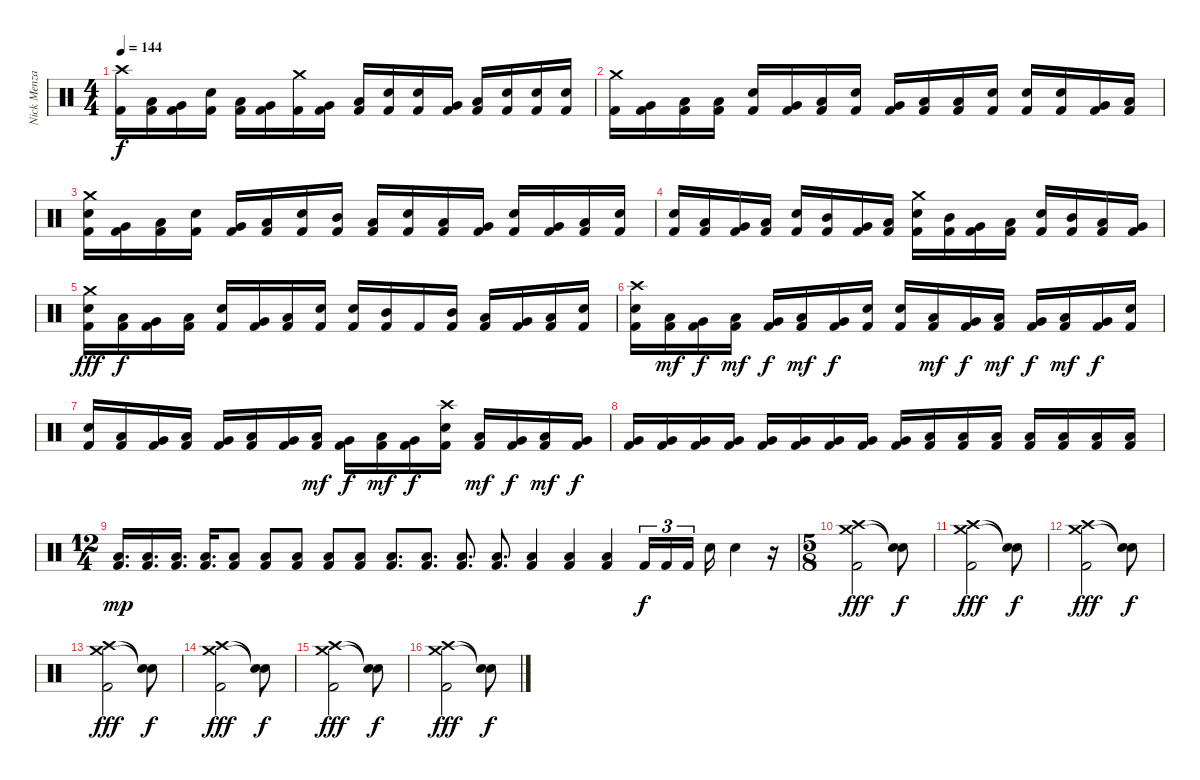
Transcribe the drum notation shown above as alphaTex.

\track ("Nick Menza" "Nick Menza") {instrument percussion}
\staff {score}
\articulation defaults
\ts (4 4)
\tempo 144
\clef neutral
\ks c
("Crash high (hit)" "Kick (hit) 2").16{dy f} ("Low Tom (hit)" "Kick (hit) 2").16 ("Very Low Tom (hit)" "Kick (hit) 2").16 ("Electric Snare (hit)" "Kick (hit) 2").16 ("Low Tom (hit)" "Kick (hit) 2").16 ("Very Low Tom (hit)" "Kick (hit) 2").16 ("Crash medium (hit)" "Kick (hit) 2").16 ("Very Low Tom (hit)" "Kick (hit) 2").16 ("Low Floor Tom (hit)" "Kick (hit) 2").16 ("Electric Snare (hit)" "Kick (hit) 2").16 ("Electric Snare (hit)" "Kick (hit) 2").16 ("Very Low Tom (hit)" "Kick (hit) 2").16 ("Low Floor Tom (hit)" "Kick (hit) 2").16 ("Electric Snare (hit)" "Kick (hit) 2").16 ("Electric Snare (hit)" "Kick (hit) 2").16 ("Electric Snare (hit)" "Kick (hit) 2").16 |
("Crash medium (hit)" "Kick (hit) 2").16 ("Very Low Tom (hit)" "Kick (hit) 2").16 ("Low Tom (hit)" "Kick (hit) 2").16 ("Low Floor Tom (hit)" "Kick (hit) 2").16 ("Electric Snare (hit)" "Kick (hit) 2").16 ("Very Low Tom (hit)" "Kick (hit) 2").16 ("Low Floor Tom (hit)" "Kick (hit) 2").16 ("Electric Snare (hit)" "Kick (hit) 2").16 ("Very Low Tom (hit)" "Kick (hit) 2").16 ("Low Tom (hit)" "Kick (hit) 2").16 ("Low Floor Tom (hit)" "Kick (hit) 2").16 ("Electric Snare (hit)" "Kick (hit) 2").16 ("Electric Snare (hit)" "Kick (hit) 2").16 ("Electric Snare (hit)" "Kick (hit) 2").16 ("Very Low Tom (hit)" "Kick (hit) 2").16 ("Low Floor Tom (hit)" "Kick (hit) 2").16 |
("Crash medium (hit)" "Electric Snare (hit)" "Kick (hit) 2").16 ("Very Low Tom (hit)" "Kick (hit) 2").16 ("Low Floor Tom (hit)" "Kick (hit) 2").16 ("Electric Snare (hit)" "Kick (hit) 2").16 ("Very Low Tom (hit)" "Kick (hit) 2").16 ("Low Floor Tom (hit)" "Kick (hit) 2").16 ("Electric Snare (hit)" "Kick (hit) 2").16 ("Mid Tom (hit)" "Kick (hit) 2").16 ("Low Tom (hit)" "Kick (hit) 2").16 ("Electric Snare (hit)" "Kick (hit) 2").16 ("Low Tom (hit)" "Kick (hit) 2").16 ("Very Low Tom (hit)" "Kick (hit) 2").16 ("Electric Snare (hit)" "Kick (hit) 2").16 ("Very Low Tom (hit)" "Kick (hit) 2").16 ("Low Floor Tom (hit)" "Kick (hit) 2").16 ("Electric Snare (hit)" "Kick (hit) 2").16 |
("Electric Snare (hit)" "Kick (hit) 2").16 ("Low Tom (hit)" "Kick (hit) 2").16 ("Very Low Tom (hit)" "Kick (hit) 2").16 ("Low Floor Tom (hit)" "Kick (hit) 2").16 ("Electric Snare (hit)" "Kick (hit) 2").16 ("Mid Tom (hit)" "Kick (hit) 2").16 ("Very Low Tom (hit)" "Kick (hit) 2").16 ("Low Tom (hit)" "Kick (hit) 2").16 ("Crash medium (hit)" "Electric Snare (hit)" "Kick (hit) 2").16 ("Mid Tom (hit)" "Kick (hit) 2").16 ("Very Low Tom (hit)" "Kick (hit) 2").16 ("Low Tom (hit)" "Kick (hit) 2").16 ("Electric Snare (hit)" "Kick (hit) 2").16 ("Mid Tom (hit)" "Kick (hit) 2").16 ("Low Tom (hit)" "Kick (hit) 2").16 ("Very Low Tom (hit)" "Kick (hit) 2").16 |
("Crash medium (hit)" "Electric Snare (hit)" "Kick (hit) 2").16{dy fff} ("Low Floor Tom (hit)" "Kick (hit) 2").16{dy f} ("Very Low Tom (hit)" "Kick (hit) 2").16 ("Low Floor Tom (hit)" "Kick (hit) 2").16 ("Electric Snare (hit)" "Kick (hit) 2").16 ("Very Low Tom (hit)" "Kick (hit) 2").16 ("Low Floor Tom (hit)" "Kick (hit) 2").16 ("Electric Snare (hit)" "Kick (hit) 2").16 ("Electric Snare (hit)" "Kick (hit) 2").16 ("Mid Tom (hit)" "Kick (hit) 2").16 "Kick (hit) 2".16 ("Mid Tom (hit)" "Kick (hit) 2").16 ("Low Tom (hit)" "Kick (hit) 2").16 ("Very Low Tom (hit)" "Kick (hit) 2").16 ("Low Floor Tom (hit)" "Kick (hit) 2").16 ("Electric Snare (hit)" "Kick (hit) 2").16 |
("Crash high (hit)" "Electric Snare (hit)" "Kick (hit) 2").16 ("Low Floor Tom (hit)" "Kick (hit) 2").16{dy mf} ("Very Low Tom (hit)" "Kick (hit) 2").16{dy f} ("Low Floor Tom (hit)" "Kick (hit) 2").16{dy mf} ("Very Low Tom (hit)" "Kick (hit) 2").16{dy f} ("Low Floor Tom (hit)" "Kick (hit) 2").16{dy mf} ("Very Low Tom (hit)" "Kick (hit) 2").16{dy f} ("Electric Snare (hit)" "Kick (hit) 2").16 ("Electric Snare (hit)" "Kick (hit) 2").16 ("Low Floor Tom (hit)" "Kick (hit) 2").16{dy mf} ("Very Low Tom (hit)" "Kick (hit) 2").16{dy f} ("Low Floor Tom (hit)" "Kick (hit) 2").16{dy mf} ("Very Low Tom (hit)" "Kick (hit) 2").16{dy f} ("Low Floor Tom (hit)" "Kick (hit) 2").16{dy mf} ("Very Low Tom (hit)" "Kick (hit) 2").16{dy f} ("Electric Snare (hit)" "Kick (hit) 2").16 |
("Electric Snare (hit)" "Kick (hit) 2").16 ("Low Floor Tom (hit)" "Kick (hit) 2").16 ("Very Low Tom (hit)" "Kick (hit) 2").16 ("Low Floor Tom (hit)" "Kick (hit) 2").16 ("Very Low Tom (hit)" "Kick (hit) 2").16 ("Low Floor Tom (hit)" "Kick (hit) 2").16 ("Very Low Tom (hit)" "Kick (hit) 2").16 ("Low Floor Tom (hit)" "Kick (hit) 2").16{dy mf} ("Very Low Tom (hit)" "Kick (hit) 2").16{dy f} ("Low Floor Tom (hit)" "Kick (hit) 2").16{dy mf} ("Very Low Tom (hit)" "Kick (hit) 2").16{dy f} ("Crash high (hit)" "Electric Snare (hit)" "Kick (hit) 2").16 ("Low Floor Tom (hit)" "Kick (hit) 2").16{dy mf} ("Very Low Tom (hit)" "Kick (hit) 2").16{dy f} ("Low Floor Tom (hit)" "Kick (hit) 2").16{dy mf} ("Very Low Tom (hit)" "Kick (hit) 2").16{dy f} |
("Very Low Tom (hit)" "Kick (hit) 2").16 ("Very Low Tom (hit)" "Kick (hit) 2").16 ("Very Low Tom (hit)" "Kick (hit) 2").16 ("Very Low Tom (hit)" "Kick (hit) 2").16 ("Very Low Tom (hit)" "Kick (hit) 2").16 ("Very Low Tom (hit)" "Kick (hit) 2").16 ("Very Low Tom (hit)" "Kick (hit) 2").16 ("Very Low Tom (hit)" "Kick (hit) 2").16 ("Very Low Tom (hit)" "Kick (hit) 2").16 ("Low Floor Tom (hit)" "Kick (hit) 2").16 ("Low Floor Tom (hit)" "Kick (hit) 2").16 ("Low Floor Tom (hit)" "Kick (hit) 2").16 ("Low Floor Tom (hit)" "Kick (hit) 2").16 ("Low Floor Tom (hit)" "Kick (hit) 2").16 ("Low Floor Tom (hit)" "Kick (hit) 2").16 ("Low Floor Tom (hit)" "Kick (hit) 2").16 |
\ts (12 4)
("Low Floor Tom (hit)" "Kick (hit) 2").16{d dy mp} ("Low Floor Tom (hit)" "Kick (hit) 2").16{d} ("Low Floor Tom (hit)" "Kick (hit) 2").16{d} ("Low Floor Tom (hit)" "Kick (hit) 2").16{d} ("Low Floor Tom (hit)" "Kick (hit) 2").8 ("Low Floor Tom (hit)" "Kick (hit) 2").8 ("Low Floor Tom (hit)" "Kick (hit) 2").8 ("Low Floor Tom (hit)" "Kick (hit) 2").8 ("Low Floor Tom (hit)" "Kick (hit) 2").8 ("Low Floor Tom (hit)" "Kick (hit) 2").8{d} ("Low Floor Tom (hit)" "Kick (hit) 2").8{d} ("Low Floor Tom (hit)" "Kick (hit) 2").8{d} ("Low Floor Tom (hit)" "Kick (hit) 2").8{d} ("Low Floor Tom (hit)" "Kick (hit) 2").4 ("Low Floor Tom (hit)" "Kick (hit) 2").4 ("Low Floor Tom (hit)" "Kick (hit) 2").4 "Kick (hit) 2".16{tu (3 2) dy f} "Kick (hit) 2".16{tu (3 2)} "Kick (hit) 2".16{tu (3 2) beam splitsecondary} "Electric Snare (hit)".16 "Electric Snare (hit)".4 r.16 |
\ts (5 8)
("Crash medium (hit)" "Crash high (hit)" "Kick (hit) 2").2{dy fff} ("Snare (hit)"{t} "Snare (hit)"{t}).8{dy f} |
("Crash medium (hit)" "Crash high (hit)" "Kick (hit) 2").2{dy fff volume 12} ("Snare (hit)"{t} "Snare (hit)"{t}).8{dy f} |
("Crash medium (hit)" "Crash high (hit)" "Kick (hit) 2").2{dy fff volume 11} ("Snare (hit)"{t} "Snare (hit)"{t}).8{dy f} |
("Crash medium (hit)" "Crash high (hit)" "Kick (hit) 2").2{dy fff volume 10} ("Snare (hit)"{t} "Snare (hit)"{t}).8{dy f} |
("Crash medium (hit)" "Crash high (hit)" "Kick (hit) 2").2{dy fff volume 9} ("Snare (hit)"{t} "Snare (hit)"{t}).8{dy f} |
("Crash medium (hit)" "Crash high (hit)" "Kick (hit) 2").2{dy fff volume 8} ("Snare (hit)"{t} "Snare (hit)"{t}).8{dy f} |
("Crash medium (hit)" "Crash high (hit)" "Kick (hit) 2").2{dy fff volume 7} ("Snare (hit)"{t} "Snare (hit)"{t}).8{dy f}
